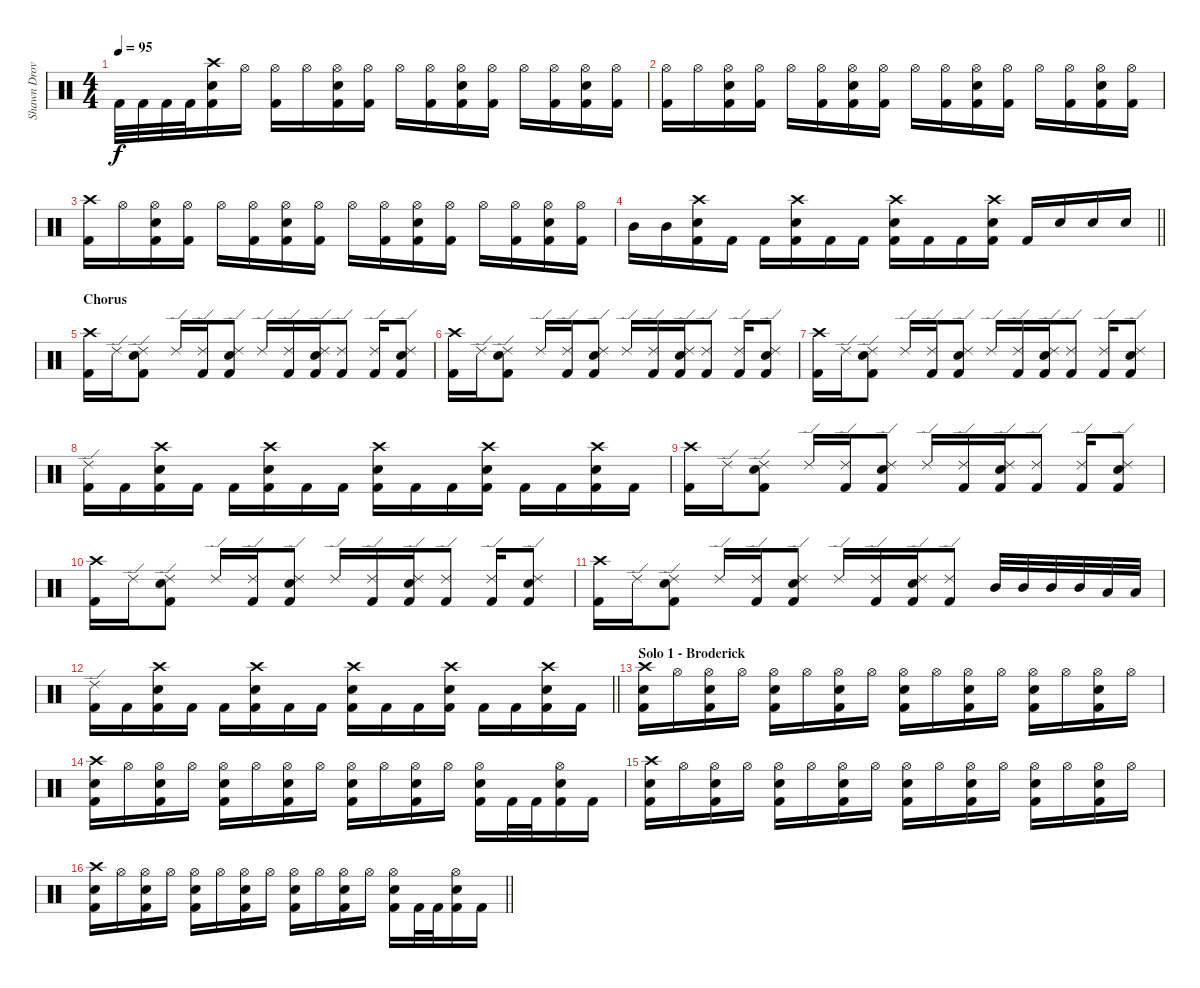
\track ("Shawn Drover " "Shawn Drov") {instrument percussion}
\staff {score}
\articulation defaults
\ts (4 4)
\tempo 95
\clef neutral
\ks c "Kick (hit) 2".32{dy f} "Kick (hit) 2".32 "Kick (hit) 2".32 "Kick (hit) 2".32
("Kick (hit) 2" "Snare (hit) 2" "Crash high (hit)").16 "Hi-Hat (open)".16 ("Kick (hit) 2" "Hi-Hat (open)").16 "Hi-Hat (open)".16 ("Kick (hit) 2" "Snare (hit) 2" "Hi-Hat (open)").16 ("Kick (hit) 2" "Hi-Hat (open)").16 "Hi-Hat (open)".16 ("Kick (hit) 2" "Hi-Hat (open)").16 ("Kick (hit) 2" "Snare (hit) 2" "Hi-Hat (open)").16 ("Kick (hit) 2" "Hi-Hat (open)").16 "Hi-Hat (open)".16 ("Kick (hit) 2" "Hi-Hat (open)").16 ("Kick (hit) 2" "Snare (hit) 2" "Hi-Hat (open)").16 ("Kick (hit) 2" "Hi-Hat (open)").16 |
("Kick (hit) 2" "Hi-Hat (open)").16 "Hi-Hat (open)".16 ("Kick (hit) 2" "Snare (hit) 2" "Hi-Hat (open)").16 ("Kick (hit) 2" "Hi-Hat (open)").16 "Hi-Hat (open)".16 ("Kick (hit) 2" "Hi-Hat (open)").16 ("Kick (hit) 2" "Snare (hit) 2" "Hi-Hat (open)").16 ("Kick (hit) 2" "Hi-Hat (open)").16 "Hi-Hat (open)".16 ("Kick (hit) 2" "Hi-Hat (open)").16 ("Kick (hit) 2" "Snare (hit) 2" "Hi-Hat (open)").16 ("Kick (hit) 2" "Hi-Hat (open)").16 "Hi-Hat (open)".16 ("Kick (hit) 2" "Hi-Hat (open)").16 ("Kick (hit) 2" "Snare (hit) 2" "Hi-Hat (open)").16 ("Kick (hit) 2" "Hi-Hat (open)").16 |
("Kick (hit) 2" "Crash high (hit)").16 "Hi-Hat (open)".16 ("Kick (hit) 2" "Snare (hit) 2" "Hi-Hat (open)").16 ("Kick (hit) 2" "Hi-Hat (open)").16 "Hi-Hat (open)".16 ("Kick (hit) 2" "Hi-Hat (open)").16 ("Kick (hit) 2" "Snare (hit) 2" "Hi-Hat (open)").16 ("Kick (hit) 2" "Hi-Hat (open)").16 "Hi-Hat (open)".16 ("Kick (hit) 2" "Hi-Hat (open)").16 ("Kick (hit) 2" "Snare (hit) 2" "Hi-Hat (open)").16 ("Kick (hit) 2" "Hi-Hat (open)").16 "Hi-Hat (open)".16 ("Kick (hit) 2" "Hi-Hat (open)").16 ("Kick (hit) 2" "Snare (hit) 2" "Hi-Hat (open)").16 ("Kick (hit) 2" "Hi-Hat (open)").16 |
\barLineRight lightlight "Mid Tom (hit)".16 "Mid Tom (hit)".16
("Kick (hit) 2" "Snare (hit) 2" "Crash high (hit)").16 "Kick (hit) 2".16 "Kick (hit) 2".16 ("Kick (hit) 2" "Snare (hit) 2" "Crash high (hit)").16 "Kick (hit) 2".16 "Kick (hit) 2".16 ("Kick (hit) 2" "Snare (hit) 2" "Crash high (hit)").16 "Kick (hit) 2".16 "Kick (hit) 2".16 ("Kick (hit) 2" "Snare (hit) 2" "Crash high (hit)").16 "Kick (hit) 2".16 "Snare (hit) 2".16 "Snare (hit) 2".16 "Snare (hit) 2".16 |
\section ("" "Chorus")
("Kick (hit) 2" "Crash high (hit)").16 "Ride (edge) 2".16 ("Kick (hit) 2" "Snare (hit) 2" "Ride (edge) 2").8 "Ride (edge) 2".16 ("Kick (hit) 2" "Ride (edge) 2").16 ("Kick (hit) 2" "Snare (hit) 2" "Ride (edge) 2").8 "Ride (edge) 2".16 ("Kick (hit) 2" "Ride (edge) 2").16 ("Kick (hit) 2" "Snare (hit) 2" "Ride (edge) 2").16 ("Kick (hit) 2" "Ride (edge) 2").8 ("Kick (hit) 2" "Ride (edge) 2").16 ("Kick (hit) 2" "Snare (hit) 2" "Ride (edge) 2").8 |
("Kick (hit) 2" "Crash high (hit)").16 "Ride (edge) 2".16 ("Kick (hit) 2" "Snare (hit) 2" "Ride (edge) 2").8 "Ride (edge) 2".16 ("Kick (hit) 2" "Ride (edge) 2").16 ("Kick (hit) 2" "Snare (hit) 2" "Ride (edge) 2").8 "Ride (edge) 2".16 ("Kick (hit) 2" "Ride (edge) 2").16 ("Kick (hit) 2" "Snare (hit) 2" "Ride (edge) 2").16 ("Kick (hit) 2" "Ride (edge) 2").8 ("Kick (hit) 2" "Ride (edge) 2").16 ("Kick (hit) 2" "Snare (hit) 2" "Ride (edge) 2").8 |
("Kick (hit) 2" "Crash high (hit)").16 "Ride (edge) 2".16 ("Kick (hit) 2" "Snare (hit) 2" "Ride (edge) 2").8 "Ride (edge) 2".16 ("Kick (hit) 2" "Ride (edge) 2").16 ("Kick (hit) 2" "Snare (hit) 2" "Ride (edge) 2").8 "Ride (edge) 2".16 ("Kick (hit) 2" "Ride (edge) 2").16 ("Kick (hit) 2" "Snare (hit) 2" "Ride (edge) 2").16 ("Kick (hit) 2" "Ride (edge) 2").8 ("Kick (hit) 2" "Ride (edge) 2").16 ("Kick (hit) 2" "Snare (hit) 2" "Ride (edge) 2").8 |
("Kick (hit) 2" "Ride (edge) 2").16 "Kick (hit) 2".16 ("Kick (hit) 2" "Snare (hit) 2" "Crash high (hit)").16 "Kick (hit) 2".16 "Kick (hit) 2".16 ("Kick (hit) 2" "Snare (hit) 2" "Crash high (hit)").16 "Kick (hit) 2".16 "Kick (hit) 2".16 ("Kick (hit) 2" "Snare (hit) 2" "Crash high (hit)").16 "Kick (hit) 2".16 "Kick (hit) 2".16 ("Kick (hit) 2" "Snare (hit) 2" "Crash high (hit)").16 "Kick (hit) 2".16 "Kick (hit) 2".16 ("Kick (hit) 2" "Snare (hit) 2" "Crash high (hit)").16 "Kick (hit) 2".16 |
("Kick (hit) 2" "Crash high (hit)").16 "Ride (edge) 2".16 ("Kick (hit) 2" "Snare (hit) 2" "Ride (edge) 2").8 "Ride (edge) 2".16 ("Kick (hit) 2" "Ride (edge) 2").16 ("Kick (hit) 2" "Snare (hit) 2" "Ride (edge) 2").8 "Ride (edge) 2".16 ("Kick (hit) 2" "Ride (edge) 2").16 ("Kick (hit) 2" "Snare (hit) 2" "Ride (edge) 2").16 ("Kick (hit) 2" "Ride (edge) 2").8 ("Kick (hit) 2" "Ride (edge) 2").16 ("Kick (hit) 2" "Snare (hit) 2" "Ride (edge) 2").8 |
("Kick (hit) 2" "Crash high (hit)").16 "Ride (edge) 2".16 ("Kick (hit) 2" "Snare (hit) 2" "Ride (edge) 2").8 "Ride (edge) 2".16 ("Kick (hit) 2" "Ride (edge) 2").16 ("Kick (hit) 2" "Snare (hit) 2" "Ride (edge) 2").8 "Ride (edge) 2".16 ("Kick (hit) 2" "Ride (edge) 2").16 ("Kick (hit) 2" "Snare (hit) 2" "Ride (edge) 2").16 ("Kick (hit) 2" "Ride (edge) 2").8 ("Kick (hit) 2" "Ride (edge) 2").16 ("Kick (hit) 2" "Snare (hit) 2" "Ride (edge) 2").8 |
("Kick (hit) 2" "Crash high (hit)").16 "Ride (edge) 2".16 ("Kick (hit) 2" "Snare (hit) 2" "Ride (edge) 2").8 "Ride (edge) 2".16 ("Kick (hit) 2" "Ride (edge) 2").16 ("Kick (hit) 2" "Snare (hit) 2" "Ride (edge) 2").8 "Ride (edge) 2".16 ("Kick (hit) 2" "Ride (edge) 2").16 ("Kick (hit) 2" "Snare (hit) 2" "Ride (edge) 2").16 ("Kick (hit) 2" "Ride (edge) 2").8 "Mid Tom (hit)".32 "Mid Tom (hit)".32 "Mid Tom (hit)".32 "Mid Tom (hit)".32 "Low Tom (hit)".32 "Low Tom (hit)".32 |
\barLineRight lightlight
("Kick (hit) 2" "Ride (edge) 2").16 "Kick (hit) 2".16 ("Kick (hit) 2" "Snare (hit) 2" "Crash high (hit)").16 "Kick (hit) 2".16 "Kick (hit) 2".16 ("Kick (hit) 2" "Snare (hit) 2" "Crash high (hit)").16 "Kick (hit) 2".16 "Kick (hit) 2".16 ("Kick (hit) 2" "Snare (hit) 2" "Crash high (hit)").16 "Kick (hit) 2".16 "Kick (hit) 2".16 ("Kick (hit) 2" "Snare (hit) 2" "Crash high (hit)").16 "Kick (hit) 2".16 "Kick (hit) 2".16 ("Kick (hit) 2" "Snare (hit) 2" "Crash high (hit)").16 "Kick (hit) 2".16 |
\section ("" "Solo 1 - Broderick")
("Kick (hit) 2" "Snare (hit) 2" "Crash high (hit)").16 "Hi-Hat (open)".16 ("Kick (hit) 2" "Snare (hit) 2" "Hi-Hat (open)").16 "Hi-Hat (open)".16 ("Kick (hit) 2" "Snare (hit) 2" "Hi-Hat (open)").16 "Hi-Hat (open)".16 ("Kick (hit) 2" "Snare (hit) 2" "Hi-Hat (open)").16 "Hi-Hat (open)".16 ("Kick (hit) 2" "Snare (hit) 2" "Hi-Hat (open)").16 "Hi-Hat (open)".16 ("Kick (hit) 2" "Snare (hit) 2" "Hi-Hat (open)").16 "Hi-Hat (open)".16 ("Kick (hit) 2" "Snare (hit) 2" "Hi-Hat (open)").16 "Hi-Hat (open)".16 ("Kick (hit) 2" "Snare (hit) 2" "Hi-Hat (open)").16 "Hi-Hat (open)".16 |
("Kick (hit) 2" "Snare (hit) 2" "Crash high (hit)").16 "Hi-Hat (open)".16 ("Kick (hit) 2" "Snare (hit) 2" "Hi-Hat (open)").16 "Hi-Hat (open)".16 ("Kick (hit) 2" "Snare (hit) 2" "Hi-Hat (open)").16 "Hi-Hat (open)".16 ("Kick (hit) 2" "Snare (hit) 2" "Hi-Hat (open)").16 "Hi-Hat (open)".16 ("Kick (hit) 2" "Snare (hit) 2" "Hi-Hat (open)").16 "Hi-Hat (open)".16 ("Kick (hit) 2" "Snare (hit) 2" "Hi-Hat (open)").16 "Hi-Hat (open)".16 ("Kick (hit) 2" "Snare (hit) 2" "Hi-Hat (open)").16 "Kick (hit) 2".32 "Kick (hit) 2".32 ("Kick (hit) 2" "Snare (hit) 2" "Hi-Hat (open)").16 "Kick (hit) 2".16 |
("Kick (hit) 2" "Snare (hit) 2" "Crash high (hit)").16 "Hi-Hat (open)".16 ("Kick (hit) 2" "Snare (hit) 2" "Hi-Hat (open)").16 "Hi-Hat (open)".16 ("Kick (hit) 2" "Snare (hit) 2" "Hi-Hat (open)").16 "Hi-Hat (open)".16 ("Kick (hit) 2" "Snare (hit) 2" "Hi-Hat (open)").16 "Hi-Hat (open)".16 ("Kick (hit) 2" "Snare (hit) 2" "Hi-Hat (open)").16 "Hi-Hat (open)".16 ("Kick (hit) 2" "Snare (hit) 2" "Hi-Hat (open)").16 "Hi-Hat (open)".16 ("Kick (hit) 2" "Snare (hit) 2" "Hi-Hat (open)").16 "Hi-Hat (open)".16 ("Kick (hit) 2" "Snare (hit) 2" "Hi-Hat (open)").16 "Hi-Hat (open)".16 |
\barLineRight lightlight
("Kick (hit) 2" "Snare (hit) 2" "Crash high (hit)").16 "Hi-Hat (open)".16 ("Kick (hit) 2" "Snare (hit) 2" "Hi-Hat (open)").16 "Hi-Hat (open)".16 ("Kick (hit) 2" "Snare (hit) 2" "Hi-Hat (open)").16 "Hi-Hat (open)".16 ("Kick (hit) 2" "Snare (hit) 2" "Hi-Hat (open)").16 "Hi-Hat (open)".16 ("Kick (hit) 2" "Snare (hit) 2" "Hi-Hat (open)").16 "Hi-Hat (open)".16 ("Kick (hit) 2" "Snare (hit) 2" "Hi-Hat (open)").16 "Hi-Hat (open)".16 ("Kick (hit) 2" "Snare (hit) 2" "Hi-Hat (open)").16 "Kick (hit) 2".32 "Kick (hit) 2".32 ("Kick (hit) 2" "Snare (hit) 2" "Hi-Hat (open)").16 "Kick (hit) 2".16
